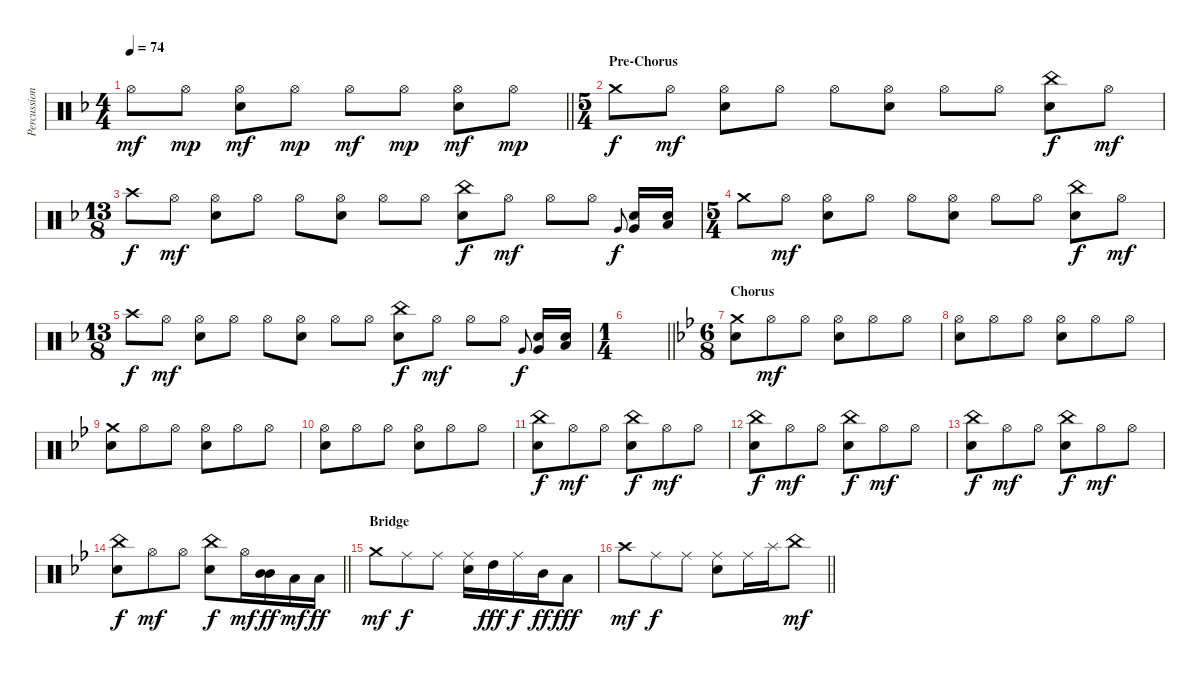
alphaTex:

\track ("Percussion" "Percussion") {instrument percussion}
\staff {score}
\articulation defaults
\ts (4 4)
\tempo 74
\clef neutral
\barLineRight lightlight
\ks f "Hi-Hat (open)".8{dy mf} "Hi-Hat (open)".8{dy mp}
("Hi-Hat (open)" "Electric Snare (hit)").8{dy mf} "Hi-Hat (open)".8{dy mp} "Hi-Hat (open)".8{dy mf} "Hi-Hat (open)".8{dy mp} ("Hi-Hat (open)" "Electric Snare (hit)").8{dy mf} "Hi-Hat (open)".8{dy mp} |
\ts (5 4)
\section ("" "Pre-Chorus")
"Crash medium (hit)".8{dy f} "Hi-Hat (open)".8{dy mf} ("Hi-Hat (open)" "Electric Snare (hit)").8 "Hi-Hat (open)".8 "Hi-Hat (open)".8 ("Hi-Hat (open)" "Electric Snare (hit)").8 "Hi-Hat (open)".8 "Hi-Hat (open)".8 ("China (hit)" "Electric Snare (hit)").8{dy f} "Hi-Hat (open)".8{dy mf} |
\ts (13 8)
"Crash high (hit)".8{dy f} "Hi-Hat (open)".8{dy mf} ("Hi-Hat (open)" "Electric Snare (hit)").8 "Hi-Hat (open)".8 "Hi-Hat (open)".8 ("Hi-Hat (open)" "Electric Snare (hit)").8 "Hi-Hat (open)".8 "Hi-Hat (open)".8 ("China (hit)" "Electric Snare (hit)").8{dy f} "Hi-Hat (open)".8{dy mf} "Hi-Hat (open)".8 "Hi-Hat (open)".8 "Very Low Tom (hit)".8{gr onbeat dy f} ("Very Low Tom (hit)" "Electric Snare (hit)").16 ("Low Floor Tom (hit)" "Electric Snare (hit)").16 |
\ts (5 4)
"Crash medium (hit)".8 "Hi-Hat (open)".8{dy mf} ("Hi-Hat (open)" "Electric Snare (hit)").8 "Hi-Hat (open)".8 "Hi-Hat (open)".8 ("Hi-Hat (open)" "Electric Snare (hit)").8 "Hi-Hat (open)".8 "Hi-Hat (open)".8 ("China (hit)" "Electric Snare (hit)").8{dy f} "Hi-Hat (open)".8{dy mf} |
\ts (13 8)
"Crash high (hit)".8{dy f} "Hi-Hat (open)".8{dy mf} ("Hi-Hat (open)" "Electric Snare (hit)").8 "Hi-Hat (open)".8 "Hi-Hat (open)".8 ("Hi-Hat (open)" "Electric Snare (hit)").8 "Hi-Hat (open)".8 "Hi-Hat (open)".8 ("China (hit)" "Electric Snare (hit)").8{dy f} "Hi-Hat (open)".8{dy mf} "Hi-Hat (open)".8 "Hi-Hat (open)".8 "Very Low Tom (hit)".8{gr onbeat dy f} ("Very Low Tom (hit)" "Electric Snare (hit)").16 ("Low Floor Tom (hit)" "Electric Snare (hit)").16 |
\ts (1 4)
\barLineRight lightlight
|
\ts (6 8)
\section ("" "Chorus")
\ks bb
("Crash medium (hit)" "Electric Snare (hit)").8 "Hi-Hat (open)".8{dy mf} "Hi-Hat (open)".8 ("Hi-Hat (open)" "Electric Snare (hit)").8 "Hi-Hat (open)".8 "Hi-Hat (open)".8 |
("Hi-Hat (open)" "Electric Snare (hit)").8 "Hi-Hat (open)".8 "Hi-Hat (open)".8 ("Hi-Hat (open)" "Electric Snare (hit)").8 "Hi-Hat (open)".8 "Hi-Hat (open)".8 |
("Crash medium (hit)" "Electric Snare (hit)").8 "Hi-Hat (open)".8 "Hi-Hat (open)".8 ("Hi-Hat (open)" "Electric Snare (hit)").8 "Hi-Hat (open)".8 "Hi-Hat (open)".8 |
("Hi-Hat (open)" "Electric Snare (hit)").8 "Hi-Hat (open)".8 "Hi-Hat (open)".8 ("Hi-Hat (open)" "Electric Snare (hit)").8 "Hi-Hat (open)".8 "Hi-Hat (open)".8 |
("China (hit)" "Electric Snare (hit)").8{dy f} "Hi-Hat (open)".8{dy mf} "Hi-Hat (open)".8 ("China (hit)" "Electric Snare (hit)").8{dy f} "Hi-Hat (open)".8{dy mf} "Hi-Hat (open)".8 |
("China (hit)" "Electric Snare (hit)").8{dy f} "Hi-Hat (open)".8{dy mf} "Hi-Hat (open)".8 ("China (hit)" "Electric Snare (hit)").8{dy f} "Hi-Hat (open)".8{dy mf} "Hi-Hat (open)".8 |
("China (hit)" "Electric Snare (hit)").8{dy f} "Hi-Hat (open)".8{dy mf} "Hi-Hat (open)".8 ("China (hit)" "Electric Snare (hit)").8{dy f} "Hi-Hat (open)".8{dy mf} "Hi-Hat (open)".8 |
\barLineRight lightlight
("China (hit)" "Electric Snare (hit)").8{dy f} "Hi-Hat (open)".8{dy mf} "Hi-Hat (open)".8 ("China (hit)" "Electric Snare (hit)").8{dy f} "Hi-Hat (open)".16{dy mf} ("Mid Tom (hit)" "Mid Tom (hit)").16{dy ff} "Low Tom (hit)".16{dy mf} "Low Floor Tom (hit)".16{dy ff} |
\section ("" "Bridge")
"Crash medium (hit)".8{dy mf} "Ride (middle)".8{dy f} "Ride (middle)".8 ("Ride (middle)" "Electric Snare (hit)").16 "High Tom (hit)".16{dy fff} "Ride (middle)".16{dy f} "Mid Tom (hit)".16{dy ff} "Low Tom (hit)".8{dy fff} |
\barLineRight lightlight "Crash high (hit)".8{dy mf} "Ride (middle)".8{dy f} "Ride (middle)".8
("Ride (middle)" "Electric Snare (hit)").8 "Ride (middle)".16 "Splash (hit)".16 "China (hit)".8{dy mf}
